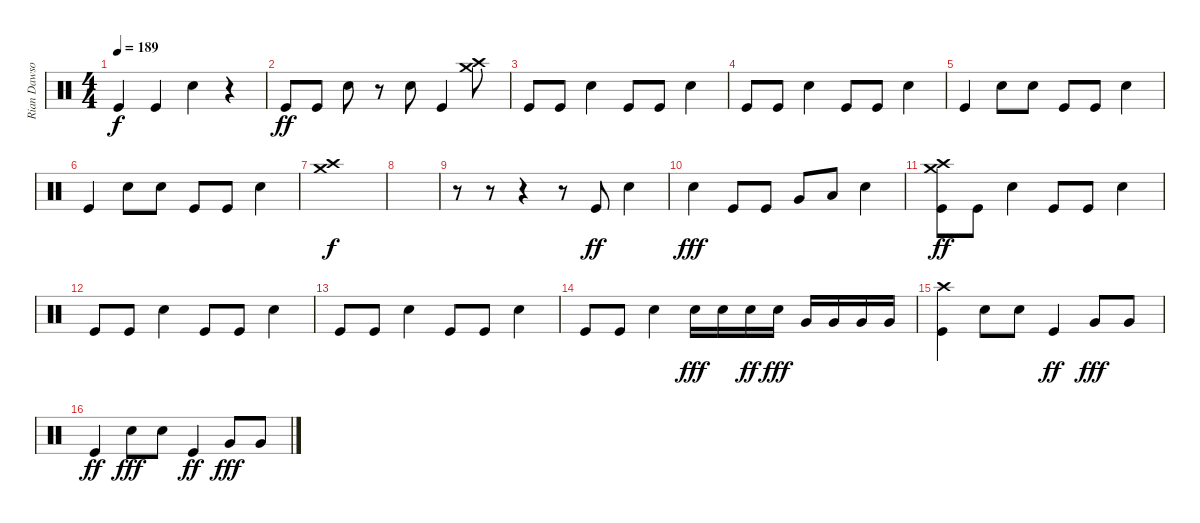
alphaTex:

\track ("Rian Dawson" "Rian Dawso") {instrument percussion}
\staff {score}
\articulation defaults
\ts (4 4)
\tempo 189
\clef neutral
\ks c "Kick (hit)".4{dy f} "Kick (hit)".4 "Snare (hit) 2".4
r.4 |
"Kick (hit)".8{dy ff} "Kick (hit)".8 "Snare (hit) 2".8 r.8 "Snare (hit) 2".8 "Kick (hit)".4 ("Crash high (hit)" "Crash medium (hit)").8 |
"Kick (hit)".8 "Kick (hit)".8 "Snare (hit) 2".4 "Kick (hit)".8 "Kick (hit)".8 "Snare (hit) 2".4 |
"Kick (hit)".8 "Kick (hit)".8 "Snare (hit) 2".4 "Kick (hit)".8 "Kick (hit)".8 "Snare (hit) 2".4 |
"Kick (hit)".4 "Snare (hit) 2".8 "Snare (hit) 2".8 "Kick (hit)".8 "Kick (hit)".8 "Snare (hit) 2".4 |
"Kick (hit)".4 "Snare (hit) 2".8 "Snare (hit) 2".8 "Kick (hit)".8 "Kick (hit)".8 "Snare (hit) 2".4 |
("Crash high (hit)" "Crash medium (hit)").1{dy f} |
|
r.8 r.8 r.4 r.8 "Kick (hit)".8{dy ff} "Snare (hit) 2".4 |
"Snare (hit) 2".4{dy fff} "Kick (hit)".8 "Kick (hit)".8 "Very Low Tom (hit)".8 "Low Tom (hit)".8 "Snare (hit) 2".4 |
("Crash high (hit)" "Crash medium (hit)" "Kick (hit)").8{dy ff} "Kick (hit)".8 "Snare (hit) 2".4 "Kick (hit)".8 "Kick (hit)".8 "Snare (hit) 2".4 |
"Kick (hit)".8 "Kick (hit)".8 "Snare (hit) 2".4 "Kick (hit)".8 "Kick (hit)".8 "Snare (hit) 2".4 |
"Kick (hit)".8 "Kick (hit)".8 "Snare (hit) 2".4 "Kick (hit)".8 "Kick (hit)".8 "Snare (hit) 2".4 |
"Kick (hit)".8 "Kick (hit)".8 "Snare (hit) 2".4 "Snare (hit) 2".16{dy fff} "Snare (hit) 2".16 "Snare (hit) 2".16{dy ff} "Snare (hit) 2".16{dy fff} "Very Low Tom (hit)".16 "Very Low Tom (hit)".16 "Very Low Tom (hit)".16 "Very Low Tom (hit)".16 |
("Crash high (hit)" "Kick (hit)").4 "Snare (hit) 2".8 "Snare (hit) 2".8 "Kick (hit)".4{dy ff} "Very Low Tom (hit)".8{dy fff} "Very Low Tom (hit)".8 |
"Kick (hit)".4{dy ff} "Snare (hit) 2".8{dy fff} "Snare (hit) 2".8 "Kick (hit)".4{dy ff} "Very Low Tom (hit)".8{dy fff} "Very Low Tom (hit)".8
